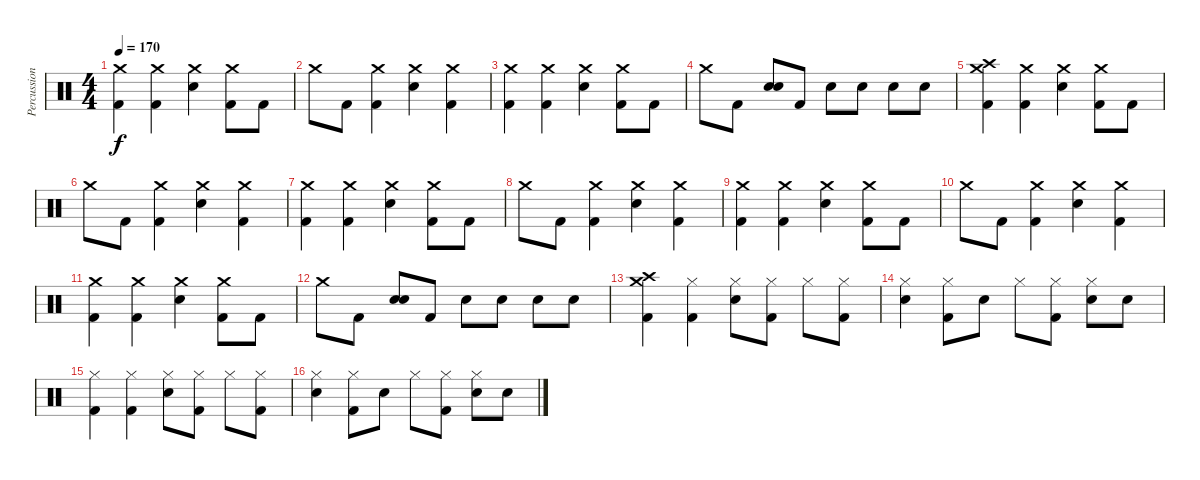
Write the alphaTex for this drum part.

\track ("Percussions" "Percussion") {instrument percussion}
\staff {score}
\articulation defaults
\ts (4 4)
\tempo 170
\clef neutral
\ks c
("Crash medium (hit)" "Kick (hit) 2").4{dy f} ("Crash medium (hit)" "Kick (hit) 2").4 ("Crash medium (hit)" "Electric Snare (hit)").4 ("Crash medium (hit)" "Kick (hit) 2").8 "Kick (hit) 2".8 |
"Crash medium (hit)".8 "Kick (hit) 2".8 ("Crash medium (hit)" "Kick (hit) 2").4 ("Crash medium (hit)" "Electric Snare (hit)").4 ("Crash medium (hit)" "Kick (hit) 2").4 |
("Crash medium (hit)" "Kick (hit) 2").4 ("Crash medium (hit)" "Kick (hit) 2").4 ("Crash medium (hit)" "Electric Snare (hit)").4 ("Crash medium (hit)" "Kick (hit) 2").8 "Kick (hit) 2".8 |
"Crash medium (hit)".8 "Kick (hit) 2".8 ("Electric Snare (hit)" "Electric Snare (hit)").8{bd 480} "Kick (hit) 2".8 "Electric Snare (hit)".8 "Electric Snare (hit)".8 "Electric Snare (hit)".8 "Electric Snare (hit)".8 |
("Crash high (hit)" "Crash medium (hit)" "Kick (hit) 2").4 ("Crash medium (hit)" "Kick (hit) 2").4 ("Crash medium (hit)" "Electric Snare (hit)").4 ("Crash medium (hit)" "Kick (hit) 2").8 "Kick (hit) 2".8 |
"Crash medium (hit)".8 "Kick (hit) 2".8 ("Crash medium (hit)" "Kick (hit) 2").4 ("Crash medium (hit)" "Electric Snare (hit)").4 ("Crash medium (hit)" "Kick (hit) 2").4 |
("Crash medium (hit)" "Kick (hit) 2").4 ("Crash medium (hit)" "Kick (hit) 2").4 ("Crash medium (hit)" "Electric Snare (hit)").4 ("Crash medium (hit)" "Kick (hit) 2").8 "Kick (hit) 2".8 |
"Crash medium (hit)".8 "Kick (hit) 2".8 ("Crash medium (hit)" "Kick (hit) 2").4 ("Crash medium (hit)" "Electric Snare (hit)").4 ("Crash medium (hit)" "Kick (hit) 2").4 |
("Crash medium (hit)" "Kick (hit) 2").4 ("Crash medium (hit)" "Kick (hit) 2").4 ("Crash medium (hit)" "Electric Snare (hit)").4 ("Crash medium (hit)" "Kick (hit) 2").8 "Kick (hit) 2".8 |
"Crash medium (hit)".8 "Kick (hit) 2".8 ("Crash medium (hit)" "Kick (hit) 2").4 ("Crash medium (hit)" "Electric Snare (hit)").4 ("Crash medium (hit)" "Kick (hit) 2").4 |
("Crash medium (hit)" "Kick (hit) 2").4 ("Crash medium (hit)" "Kick (hit) 2").4 ("Crash medium (hit)" "Electric Snare (hit)").4 ("Crash medium (hit)" "Kick (hit) 2").8 "Kick (hit) 2".8 |
"Crash medium (hit)".8 "Kick (hit) 2".8 ("Electric Snare (hit)" "Electric Snare (hit)").8{bd 480} "Kick (hit) 2".8 "Electric Snare (hit)".8 "Electric Snare (hit)".8 "Electric Snare (hit)".8 "Electric Snare (hit)".8 |
("Crash medium (hit)" "Crash high (hit)" "Kick (hit) 2").4 ("Hi-Hat (closed)" "Kick (hit) 2").4 ("Hi-Hat (closed)" "Electric Snare (hit)").8 ("Hi-Hat (closed)" "Kick (hit) 2").8 "Hi-Hat (closed)".8 ("Hi-Hat (closed)" "Kick (hit) 2").8 |
("Hi-Hat (closed)" "Electric Snare (hit)").4 ("Hi-Hat (closed)" "Kick (hit) 2").8 "Electric Snare (hit)".8 "Hi-Hat (closed)".8 ("Hi-Hat (closed)" "Kick (hit) 2").8 ("Hi-Hat (closed)" "Electric Snare (hit)").8 "Electric Snare (hit)".8 |
("Hi-Hat (closed)" "Kick (hit) 2").4 ("Hi-Hat (closed)" "Kick (hit) 2").4 ("Hi-Hat (closed)" "Electric Snare (hit)").8 ("Hi-Hat (closed)" "Kick (hit) 2").8 "Hi-Hat (closed)".8 ("Hi-Hat (closed)" "Kick (hit) 2").8 |
("Hi-Hat (closed)" "Electric Snare (hit)").4 ("Hi-Hat (closed)" "Kick (hit) 2").8 "Electric Snare (hit)".8 "Hi-Hat (closed)".8 ("Hi-Hat (closed)" "Kick (hit) 2").8 ("Hi-Hat (closed)" "Electric Snare (hit)").8 "Electric Snare (hit)".8
